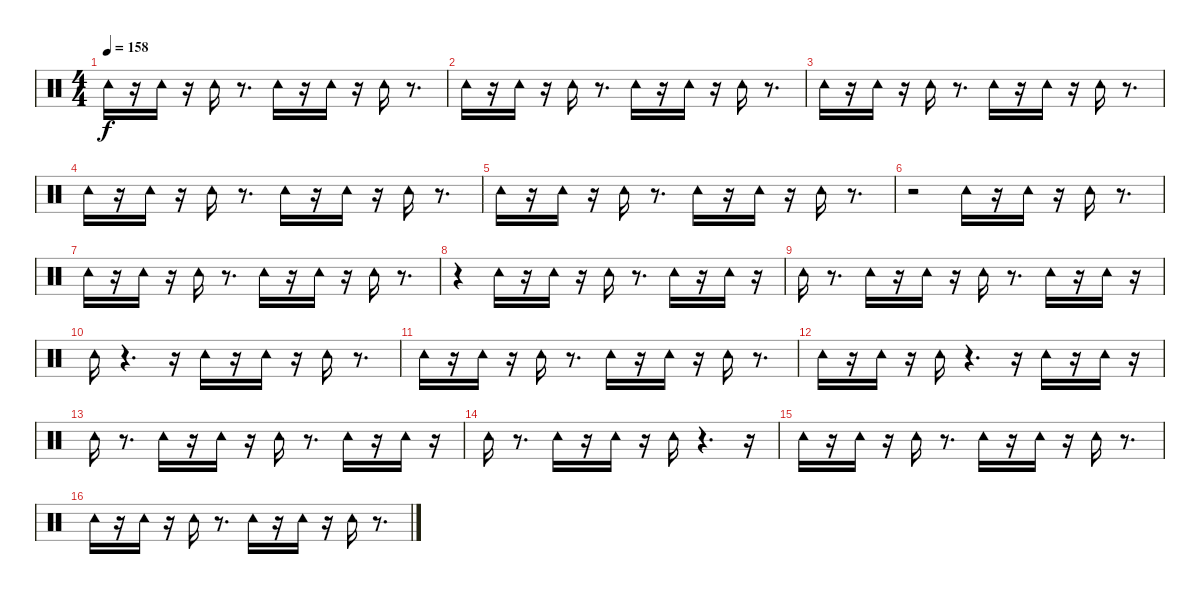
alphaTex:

\track "" {instrument percussion}
\staff {score}
\articulation defaults
\ts (4 4)
\tempo 158
\clef neutral
\ks c "Tambourine (hit)".16{dy f}
r.16 "Tambourine (hit)".16 r.16 "Tambourine (hit)".16 r.8{d} "Tambourine (hit)".16 r.16 "Tambourine (hit)".16 r.16 "Tambourine (hit)".16 r.8{d} |
"Tambourine (hit)".16 r.16 "Tambourine (hit)".16 r.16 "Tambourine (hit)".16 r.8{d} "Tambourine (hit)".16 r.16 "Tambourine (hit)".16 r.16 "Tambourine (hit)".16 r.8{d} |
"Tambourine (hit)".16 r.16 "Tambourine (hit)".16 r.16 "Tambourine (hit)".16 r.8{d} "Tambourine (hit)".16 r.16 "Tambourine (hit)".16 r.16 "Tambourine (hit)".16 r.8{d} |
"Tambourine (hit)".16 r.16 "Tambourine (hit)".16 r.16 "Tambourine (hit)".16 r.8{d} "Tambourine (hit)".16 r.16 "Tambourine (hit)".16 r.16 "Tambourine (hit)".16 r.8{d} |
"Tambourine (hit)".16 r.16 "Tambourine (hit)".16 r.16 "Tambourine (hit)".16 r.8{d} "Tambourine (hit)".16 r.16 "Tambourine (hit)".16 r.16 "Tambourine (hit)".16 r.8{d} |
r.2 "Tambourine (hit)".16 r.16 "Tambourine (hit)".16 r.16 "Tambourine (hit)".16 r.8{d} |
"Tambourine (hit)".16 r.16 "Tambourine (hit)".16 r.16 "Tambourine (hit)".16 r.8{d} "Tambourine (hit)".16 r.16 "Tambourine (hit)".16 r.16 "Tambourine (hit)".16 r.8{d} |
r.4 "Tambourine (hit)".16 r.16 "Tambourine (hit)".16 r.16 "Tambourine (hit)".16 r.8{d} "Tambourine (hit)".16 r.16 "Tambourine (hit)".16 r.16 |
"Tambourine (hit)".16 r.8{d} "Tambourine (hit)".16 r.16 "Tambourine (hit)".16 r.16 "Tambourine (hit)".16 r.8{d} "Tambourine (hit)".16 r.16 "Tambourine (hit)".16 r.16 |
"Tambourine (hit)".16 r.4{d} r.16 "Tambourine (hit)".16 r.16 "Tambourine (hit)".16 r.16 "Tambourine (hit)".16 r.8{d} |
"Tambourine (hit)".16 r.16 "Tambourine (hit)".16 r.16 "Tambourine (hit)".16 r.8{d} "Tambourine (hit)".16 r.16 "Tambourine (hit)".16 r.16 "Tambourine (hit)".16 r.8{d} |
"Tambourine (hit)".16 r.16 "Tambourine (hit)".16 r.16 "Tambourine (hit)".16 r.4{d} r.16 "Tambourine (hit)".16 r.16 "Tambourine (hit)".16 r.16 |
"Tambourine (hit)".16 r.8{d} "Tambourine (hit)".16 r.16 "Tambourine (hit)".16 r.16 "Tambourine (hit)".16 r.8{d} "Tambourine (hit)".16 r.16 "Tambourine (hit)".16 r.16 |
"Tambourine (hit)".16 r.8{d} "Tambourine (hit)".16 r.16 "Tambourine (hit)".16 r.16 "Tambourine (hit)".16 r.4{d} r.16 |
"Tambourine (hit)".16 r.16 "Tambourine (hit)".16 r.16 "Tambourine (hit)".16 r.8{d} "Tambourine (hit)".16 r.16 "Tambourine (hit)".16 r.16 "Tambourine (hit)".16 r.8{d} |
"Tambourine (hit)".16 r.16 "Tambourine (hit)".16 r.16 "Tambourine (hit)".16 r.8{d} "Tambourine (hit)".16 r.16 "Tambourine (hit)".16 r.16 "Tambourine (hit)".16 r.8{d}
